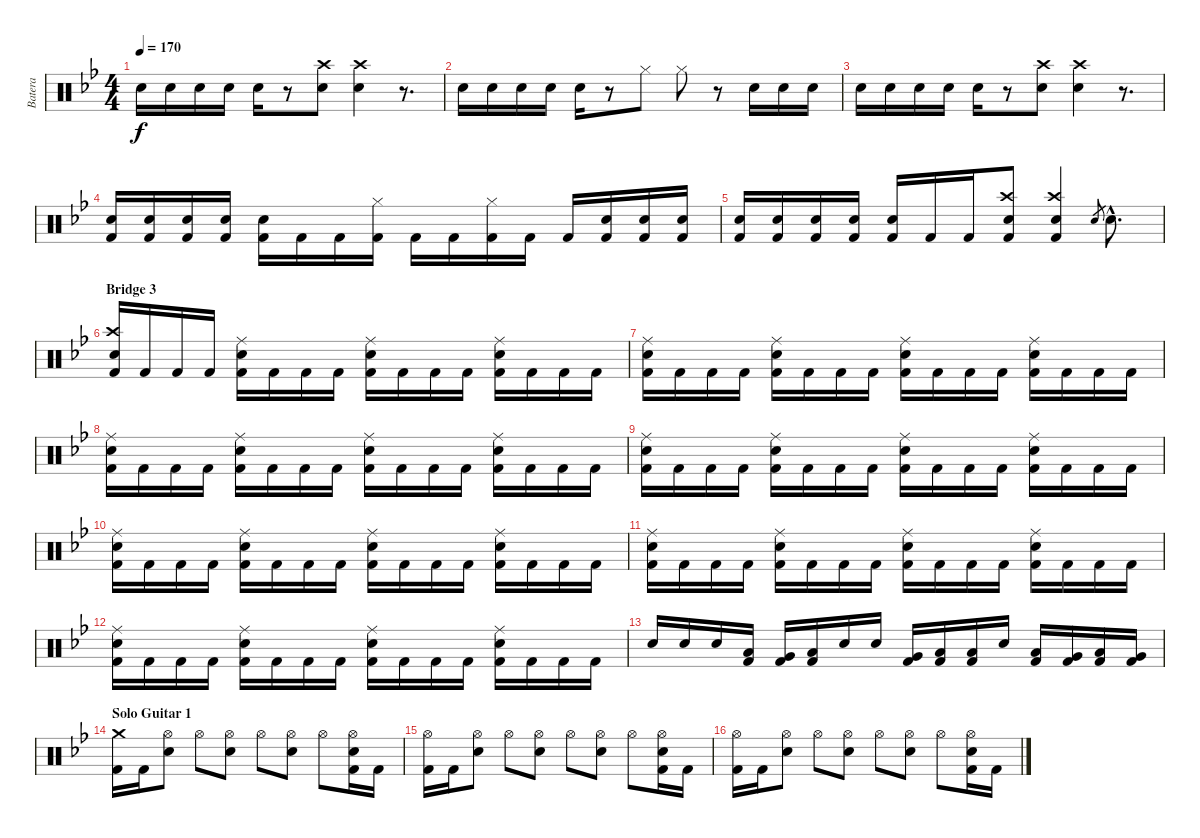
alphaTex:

\track ("Batera" "Batera") {instrument percussion}
\staff {score}
\articulation defaults
\ts (4 4)
\tempo 170
\clef neutral
\ks bb "Electric Snare (hit)".16{dy f} "Electric Snare (hit)".16 "Electric Snare (hit)".16 "Electric Snare (hit)".16 "Electric Snare (hit)".16
r.8 ("Crash high (hit)" "Electric Snare (hit)").8 ("Crash high (hit)" "Electric Snare (hit)").4 r.8{d} |
"Electric Snare (hit)".16 "Electric Snare (hit)".16 "Electric Snare (hit)".16 "Electric Snare (hit)".16 "Electric Snare (hit)".16 r.8 "Hi-Hat (closed)".8 "Hi-Hat (closed)".8 r.8 "Electric Snare (hit)".16 "Electric Snare (hit)".16 "Electric Snare (hit)".16 |
"Electric Snare (hit)".16 "Electric Snare (hit)".16 "Electric Snare (hit)".16 "Electric Snare (hit)".16 "Electric Snare (hit)".16 r.8 ("Crash high (hit)" "Electric Snare (hit)").8 ("Crash high (hit)" "Electric Snare (hit)").4 r.8{d} |
("Electric Snare (hit)" "Kick (hit) 2").16 ("Electric Snare (hit)" "Kick (hit) 2").16 ("Electric Snare (hit)" "Kick (hit) 2").16 ("Electric Snare (hit)" "Kick (hit) 2").16 ("Electric Snare (hit)" "Kick (hit) 2").16 "Kick (hit) 2".16 "Kick (hit) 2".16 ("Hi-Hat (closed)" "Kick (hit) 2").16 "Kick (hit) 2".16 "Kick (hit) 2".16 ("Hi-Hat (closed)" "Kick (hit) 2").16 "Kick (hit) 2".16 "Kick (hit) 2".16 ("Electric Snare (hit)" "Kick (hit) 2").16 ("Electric Snare (hit)" "Kick (hit) 2").16 ("Electric Snare (hit)" "Kick (hit) 2").16 |
("Electric Snare (hit)" "Kick (hit) 2").16 ("Electric Snare (hit)" "Kick (hit) 2").16 ("Electric Snare (hit)" "Kick (hit) 2").16 ("Electric Snare (hit)" "Kick (hit) 2").16 ("Electric Snare (hit)" "Kick (hit) 2").16 "Kick (hit) 2".16 "Kick (hit) 2".16 ("Crash high (hit)" "Electric Snare (hit)" "Kick (hit) 2").8 ("Crash high (hit)" "Electric Snare (hit)" "Kick (hit) 2").4 "Electric Snare (hit)".8{gr} "Electric Snare (hit)"{hac}.8{d} |
\section ("" "Bridge 3")
("Crash high (hit)" "Electric Snare (hit)" "Kick (hit) 2").16 "Kick (hit) 2".16 "Kick (hit) 2".16 "Kick (hit) 2".16 ("Ride (middle)" "Electric Snare (hit)" "Kick (hit) 2").16 "Kick (hit) 2".16 "Kick (hit) 2".16 "Kick (hit) 2".16 ("Ride (middle)" "Electric Snare (hit)" "Kick (hit) 2").16 "Kick (hit) 2".16 "Kick (hit) 2".16 "Kick (hit) 2".16 ("Ride (middle)" "Electric Snare (hit)" "Kick (hit) 2").16 "Kick (hit) 2".16 "Kick (hit) 2".16 "Kick (hit) 2".16 |
("Ride (middle)" "Electric Snare (hit)" "Kick (hit) 2").16 "Kick (hit) 2".16 "Kick (hit) 2".16 "Kick (hit) 2".16 ("Ride (middle)" "Electric Snare (hit)" "Kick (hit) 2").16 "Kick (hit) 2".16 "Kick (hit) 2".16 "Kick (hit) 2".16 ("Ride (middle)" "Electric Snare (hit)" "Kick (hit) 2").16 "Kick (hit) 2".16 "Kick (hit) 2".16 "Kick (hit) 2".16 ("Ride (middle)" "Electric Snare (hit)" "Kick (hit) 2").16 "Kick (hit) 2".16 "Kick (hit) 2".16 "Kick (hit) 2".16 |
("Ride (middle)" "Electric Snare (hit)" "Kick (hit) 2").16 "Kick (hit) 2".16 "Kick (hit) 2".16 "Kick (hit) 2".16 ("Ride (middle)" "Electric Snare (hit)" "Kick (hit) 2").16 "Kick (hit) 2".16 "Kick (hit) 2".16 "Kick (hit) 2".16 ("Ride (middle)" "Electric Snare (hit)" "Kick (hit) 2").16 "Kick (hit) 2".16 "Kick (hit) 2".16 "Kick (hit) 2".16 ("Ride (middle)" "Electric Snare (hit)" "Kick (hit) 2").16 "Kick (hit) 2".16 "Kick (hit) 2".16 "Kick (hit) 2".16 |
("Ride (middle)" "Electric Snare (hit)" "Kick (hit) 2").16 "Kick (hit) 2".16 "Kick (hit) 2".16 "Kick (hit) 2".16 ("Ride (middle)" "Electric Snare (hit)" "Kick (hit) 2").16 "Kick (hit) 2".16 "Kick (hit) 2".16 "Kick (hit) 2".16 ("Ride (middle)" "Electric Snare (hit)" "Kick (hit) 2").16 "Kick (hit) 2".16 "Kick (hit) 2".16 "Kick (hit) 2".16 ("Ride (middle)" "Electric Snare (hit)" "Kick (hit) 2").16 "Kick (hit) 2".16 "Kick (hit) 2".16 "Kick (hit) 2".16 |
("Ride (middle)" "Electric Snare (hit)" "Kick (hit) 2").16 "Kick (hit) 2".16 "Kick (hit) 2".16 "Kick (hit) 2".16 ("Ride (middle)" "Electric Snare (hit)" "Kick (hit) 2").16 "Kick (hit) 2".16 "Kick (hit) 2".16 "Kick (hit) 2".16 ("Ride (middle)" "Electric Snare (hit)" "Kick (hit) 2").16 "Kick (hit) 2".16 "Kick (hit) 2".16 "Kick (hit) 2".16 ("Ride (middle)" "Electric Snare (hit)" "Kick (hit) 2").16 "Kick (hit) 2".16 "Kick (hit) 2".16 "Kick (hit) 2".16 |
("Ride (middle)" "Electric Snare (hit)" "Kick (hit) 2").16 "Kick (hit) 2".16 "Kick (hit) 2".16 "Kick (hit) 2".16 ("Ride (middle)" "Electric Snare (hit)" "Kick (hit) 2").16 "Kick (hit) 2".16 "Kick (hit) 2".16 "Kick (hit) 2".16 ("Ride (middle)" "Electric Snare (hit)" "Kick (hit) 2").16 "Kick (hit) 2".16 "Kick (hit) 2".16 "Kick (hit) 2".16 ("Ride (middle)" "Electric Snare (hit)" "Kick (hit) 2").16 "Kick (hit) 2".16 "Kick (hit) 2".16 "Kick (hit) 2".16 |
("Ride (middle)" "Electric Snare (hit)" "Kick (hit) 2").16 "Kick (hit) 2".16 "Kick (hit) 2".16 "Kick (hit) 2".16 ("Ride (middle)" "Electric Snare (hit)" "Kick (hit) 2").16 "Kick (hit) 2".16 "Kick (hit) 2".16 "Kick (hit) 2".16 ("Ride (middle)" "Electric Snare (hit)" "Kick (hit) 2").16 "Kick (hit) 2".16 "Kick (hit) 2".16 "Kick (hit) 2".16 ("Ride (middle)" "Electric Snare (hit)" "Kick (hit) 2").16 "Kick (hit) 2".16 "Kick (hit) 2".16 "Kick (hit) 2".16 |
"Electric Snare (hit)".16 "Electric Snare (hit)".16 "Electric Snare (hit)".16 ("Low Floor Tom (hit)" "Kick (hit) 2").16 ("Very Low Tom (hit)" "Kick (hit) 2").16 ("Low Floor Tom (hit)" "Kick (hit) 2").16 "Electric Snare (hit)".16 "Electric Snare (hit)".16 ("Very Low Tom (hit)" "Kick (hit) 2").16 ("Low Tom (hit)" "Kick (hit) 2").16 ("Low Floor Tom (hit)" "Kick (hit) 2").16 "Electric Snare (hit)".16 ("Low Floor Tom (hit)" "Kick (hit) 2").16 ("Very Low Tom (hit)" "Kick (hit) 2").16 ("Low Floor Tom (hit)" "Kick (hit) 2").16 ("Very Low Tom (hit)" "Kick (hit) 2").16 |
\section ("" "Solo Guitar 1")
("Crash medium (hit)" "Kick (hit) 2").16 "Kick (hit) 2".16 ("Hi-Hat (open)" "Electric Snare (hit)").8 "Hi-Hat (open)".8 ("Hi-Hat (open)" "Electric Snare (hit)").8 "Hi-Hat (open)".8 ("Hi-Hat (open)" "Electric Snare (hit)").8 "Hi-Hat (open)".8 ("Hi-Hat (open)" "Electric Snare (hit)" "Kick (hit) 2").16 "Kick (hit) 2".16 |
("Hi-Hat (open)" "Kick (hit) 2").16 "Kick (hit) 2".16 ("Hi-Hat (open)" "Electric Snare (hit)").8 "Hi-Hat (open)".8 ("Hi-Hat (open)" "Electric Snare (hit)").8 "Hi-Hat (open)".8 ("Hi-Hat (open)" "Electric Snare (hit)").8 "Hi-Hat (open)".8 ("Hi-Hat (open)" "Electric Snare (hit)" "Kick (hit) 2").16 "Kick (hit) 2".16 |
("Hi-Hat (open)" "Kick (hit) 2").16 "Kick (hit) 2".16 ("Hi-Hat (open)" "Electric Snare (hit)").8 "Hi-Hat (open)".8 ("Hi-Hat (open)" "Electric Snare (hit)").8 "Hi-Hat (open)".8 ("Hi-Hat (open)" "Electric Snare (hit)").8 "Hi-Hat (open)".8 ("Hi-Hat (open)" "Electric Snare (hit)" "Kick (hit) 2").16 "Kick (hit) 2".16
